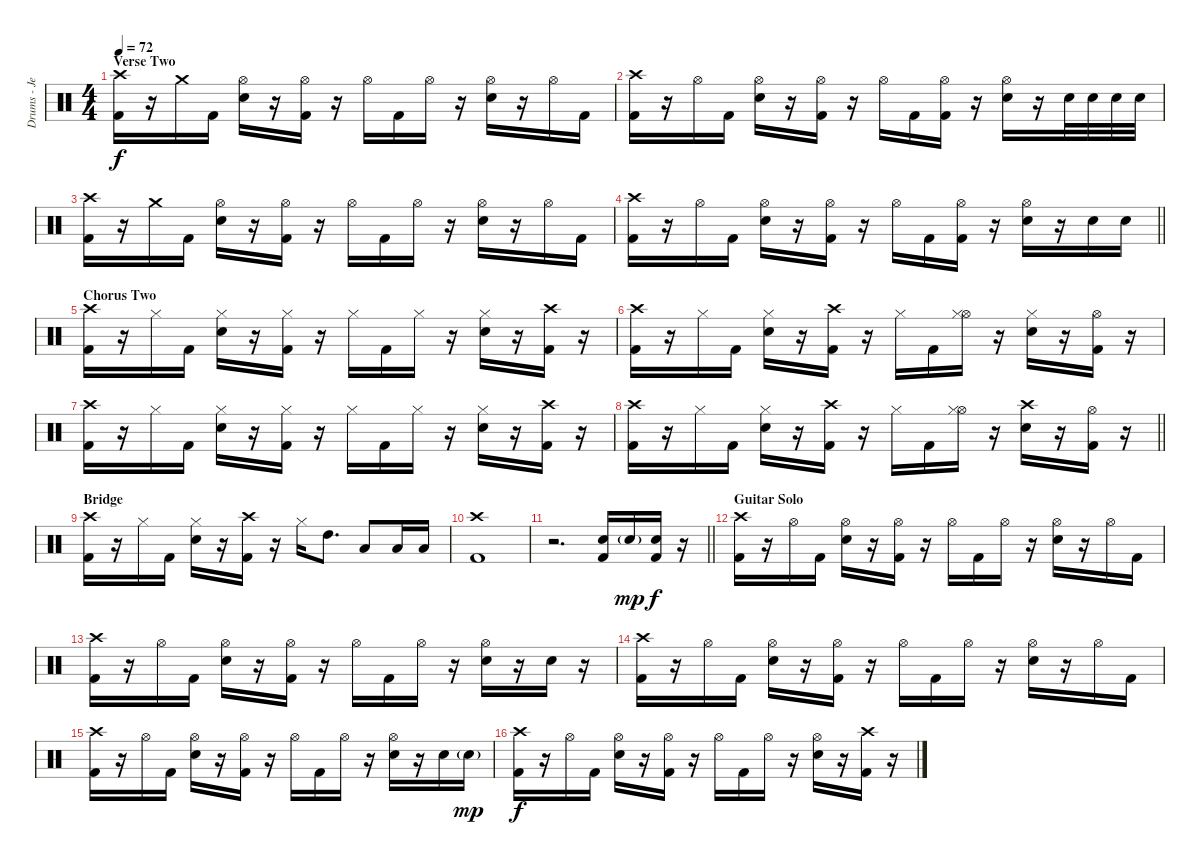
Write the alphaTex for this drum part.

\track ("Drums - Jerry Gaskill" "Drums - Je") {instrument percussion}
\staff {score}
\articulation defaults
\ts (4 4)
\section ("" "Verse Two")
\tempo 72
\clef neutral
\ks c
("Kick (hit) 2" "Crash high (hit)").16{dy f} r.16 "Crash medium (hit)".16 "Kick (hit) 2".16 ("Snare (hit) 2" "Hi-Hat (open)").16 r.16 ("Kick (hit) 2" "Hi-Hat (open)").16 r.16 "Hi-Hat (open)".16 "Kick (hit) 2".16 "Hi-Hat (open)".16 r.16 ("Snare (hit) 2" "Hi-Hat (open)").16 r.16 "Hi-Hat (open)".16 "Kick (hit) 2".16 |
("Kick (hit) 2" "Crash high (hit)").16 r.16 "Hi-Hat (open)".16 "Kick (hit) 2".16 ("Snare (hit) 2" "Hi-Hat (open)").16 r.16 ("Kick (hit) 2" "Hi-Hat (open)").16 r.16 "Hi-Hat (open)".16 "Kick (hit) 2".16 ("Kick (hit) 2" "Hi-Hat (open)").16 r.16 ("Snare (hit) 2" "Hi-Hat (open)").16 r.16 "Snare (hit) 2".32 "Snare (hit) 2".32 "Snare (hit) 2".32 "Snare (hit) 2".32 |
("Kick (hit) 2" "Crash high (hit)").16 r.16 "Crash medium (hit)".16 "Kick (hit) 2".16 ("Snare (hit) 2" "Hi-Hat (open)").16 r.16 ("Kick (hit) 2" "Hi-Hat (open)").16 r.16 "Hi-Hat (open)".16 "Kick (hit) 2".16 "Hi-Hat (open)".16 r.16 ("Snare (hit) 2" "Hi-Hat (open)").16 r.16 "Hi-Hat (open)".16 "Kick (hit) 2".16 |
\barLineRight lightlight
("Kick (hit) 2" "Crash high (hit)").16 r.16 "Hi-Hat (open)".16 "Kick (hit) 2".16 ("Snare (hit) 2" "Hi-Hat (open)").16 r.16 ("Kick (hit) 2" "Hi-Hat (open)").16 r.16 "Hi-Hat (open)".16 "Kick (hit) 2".16 ("Kick (hit) 2" "Hi-Hat (open)").16 r.16 ("Snare (hit) 2" "Hi-Hat (open)").16 r.16 "Snare (hit) 2".16 "Snare (hit) 2".16 |
\section ("" "Chorus Two")
("Kick (hit) 2" "Crash high (hit)").16 r.16 "Hi-Hat (closed)".16 "Kick (hit) 2".16 ("Snare (hit) 2" "Hi-Hat (closed)").16 r.16 ("Kick (hit) 2" "Hi-Hat (closed)").16 r.16 "Hi-Hat (closed)".16 "Kick (hit) 2".16 "Hi-Hat (closed)".16 r.16 ("Snare (hit) 2" "Hi-Hat (closed)").16 r.16 ("Kick (hit) 2" "Crash high (hit)").16 r.16 |
("Kick (hit) 2" "Crash high (hit)").16 r.16 "Hi-Hat (closed)".16 "Kick (hit) 2".16 ("Snare (hit) 2" "Hi-Hat (closed)").16 r.16 ("Kick (hit) 2" "Crash high (hit)").16 r.16 "Hi-Hat (closed)".16 "Kick (hit) 2".16 ("Hi-Hat (open)" "Hi-Hat (closed)").16 r.16 ("Snare (hit) 2" "Hi-Hat (closed)").16 r.16 ("Kick (hit) 2" "Hi-Hat (open)").16 r.16 |
("Kick (hit) 2" "Crash high (hit)").16 r.16 "Hi-Hat (closed)".16 "Kick (hit) 2".16 ("Snare (hit) 2" "Hi-Hat (closed)").16 r.16 ("Kick (hit) 2" "Hi-Hat (closed)").16 r.16 "Hi-Hat (closed)".16 "Kick (hit) 2".16 "Hi-Hat (closed)".16 r.16 ("Snare (hit) 2" "Hi-Hat (closed)").16 r.16 ("Kick (hit) 2" "Crash high (hit)").16 r.16 |
\barLineRight lightlight
("Kick (hit) 2" "Crash high (hit)").16 r.16 "Hi-Hat (closed)".16 "Kick (hit) 2".16 ("Snare (hit) 2" "Hi-Hat (closed)").16 r.16 ("Kick (hit) 2" "Crash high (hit)").16 r.16 "Hi-Hat (closed)".16 "Kick (hit) 2".16 ("Hi-Hat (open)" "Hi-Hat (closed)").16 r.16 ("Snare (hit) 2" "Crash high (hit)").16 r.16 ("Kick (hit) 2" "Hi-Hat (open)").16 r.16 |
\section ("" "Bridge")
("Kick (hit) 2" "Crash high (hit)").16 r.16 "Hi-Hat (closed)".16 "Kick (hit) 2".16 ("Snare (hit) 2" "Hi-Hat (closed)").16 r.16 ("Kick (hit) 2" "Crash high (hit)").16 r.16 "Hi-Hat (closed)".16 "High Tom (hit)".8{d} "Low Tom (hit)".8 "Low Tom (hit)".16 "Low Tom (hit)".16 |
("Kick (hit) 2" "Crash high (hit)").1 |
\barLineRight lightlight
r.2{d} ("Kick (hit) 2" "Snare (hit) 2").16 "Snare (hit) 2"{g}.16{dy mp} ("Kick (hit) 2" "Snare (hit) 2").16{dy f} r.16 |
\section ("" "Guitar Solo")
("Kick (hit) 2" "Crash high (hit)").16 r.16 "Hi-Hat (open)".16 "Kick (hit) 2".16 ("Snare (hit) 2" "Hi-Hat (open)").16 r.16 ("Kick (hit) 2" "Hi-Hat (open)").16 r.16 "Hi-Hat (open)".16 "Kick (hit) 2".16 "Hi-Hat (open)".16 r.16 ("Snare (hit) 2" "Hi-Hat (open)").16 r.16 "Hi-Hat (open)".16 "Kick (hit) 2".16 |
("Kick (hit) 2" "Crash high (hit)").16 r.16 "Hi-Hat (open)".16 "Kick (hit) 2".16 ("Snare (hit) 2" "Hi-Hat (open)").16 r.16 ("Kick (hit) 2" "Hi-Hat (open)").16 r.16 "Hi-Hat (open)".16 "Kick (hit) 2".16 "Hi-Hat (open)".16 r.16 ("Snare (hit) 2" "Hi-Hat (open)").16 r.16 "Snare (hit) 2".16 r.16 |
("Kick (hit) 2" "Crash high (hit)").16 r.16 "Hi-Hat (open)".16 "Kick (hit) 2".16 ("Snare (hit) 2" "Hi-Hat (open)").16 r.16 ("Kick (hit) 2" "Hi-Hat (open)").16 r.16 "Hi-Hat (open)".16 "Kick (hit) 2".16 "Hi-Hat (open)".16 r.16 ("Snare (hit) 2" "Hi-Hat (open)").16 r.16 "Hi-Hat (open)".16 "Kick (hit) 2".16 |
("Kick (hit) 2" "Crash high (hit)").16 r.16 "Hi-Hat (open)".16 "Kick (hit) 2".16 ("Snare (hit) 2" "Hi-Hat (open)").16 r.16 ("Kick (hit) 2" "Hi-Hat (open)").16 r.16 "Hi-Hat (open)".16 "Kick (hit) 2".16 "Hi-Hat (open)".16 r.16 ("Snare (hit) 2" "Hi-Hat (open)").16 r.16 "Snare (hit) 2".16 "Snare (hit) 2"{g}.16{dy mp} |
("Kick (hit) 2" "Crash high (hit)").16{dy f} r.16 "Hi-Hat (open)".16 "Kick (hit) 2".16 ("Snare (hit) 2" "Hi-Hat (open)").16 r.16 ("Kick (hit) 2" "Hi-Hat (open)").16 r.16 "Hi-Hat (open)".16 "Kick (hit) 2".16 "Hi-Hat (open)".16 r.16 ("Snare (hit) 2" "Hi-Hat (open)").16 r.16 ("Kick (hit) 2" "Crash high (hit)").16 r.16
